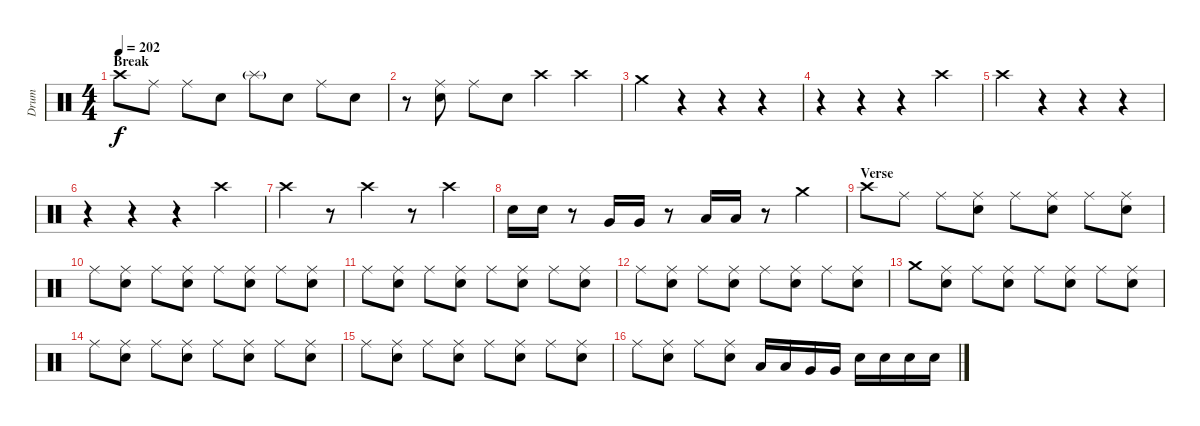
\track ("Drum" "Drum") {instrument percussion}
\staff {score}
\articulation defaults
\ts (4 4)
\section ("" "Break")
\tempo 202
\clef neutral
\ks c "Crash high (hit)".8{dy f} "Ride (middle)".8 "Ride (middle)".8 "Electric Snare (hit)".8 "Splash (hit)"{g}.8 "Electric Snare (hit)".8 "Ride (middle)".8 "Electric Snare (hit)".8
|
r.8 ("Ride (middle)" "Electric Snare (hit)").8 "Ride (middle)".8 "Electric Snare (hit)".8 "Crash high (hit)".4 "Crash high (hit)".4 |
"Crash medium (hit)".4 r.4 r.4 r.4 |
r.4 r.4 r.4 "Crash high (hit)".4 |
"Crash high (hit)".4 r.4 r.4 r.4 |
r.4 r.4 r.4 "Crash high (hit)".4 |
"Crash high (hit)".4 r.8 "Crash high (hit)".4 r.8 "Crash high (hit)".4 |
"Electric Snare (hit)".16 "Electric Snare (hit)".16 r.8 "Very Low Tom (hit)".16 "Very Low Tom (hit)".16 r.8 "Low Tom (hit)".16 "Low Tom (hit)".16 r.8 "Crash medium (hit)".4 |
\section ("" "Verse")
"Crash high (hit)".8 "Ride (middle)".8 "Ride (middle)".8 ("Ride (middle)" "Electric Snare (hit)").8 "Ride (middle)".8 ("Ride (middle)" "Electric Snare (hit)").8 "Ride (middle)".8 ("Ride (middle)" "Electric Snare (hit)").8 |
"Ride (middle)".8 ("Ride (middle)" "Electric Snare (hit)").8 "Ride (middle)".8 ("Ride (middle)" "Electric Snare (hit)").8 "Ride (middle)".8 ("Ride (middle)" "Electric Snare (hit)").8 "Ride (middle)".8 ("Ride (middle)" "Electric Snare (hit)").8 |
"Ride (middle)".8 ("Ride (middle)" "Electric Snare (hit)").8 "Ride (middle)".8 ("Ride (middle)" "Electric Snare (hit)").8 "Ride (middle)".8 ("Ride (middle)" "Electric Snare (hit)").8 "Ride (middle)".8 ("Ride (middle)" "Electric Snare (hit)").8 |
"Ride (middle)".8 ("Ride (middle)" "Electric Snare (hit)").8 "Ride (middle)".8 ("Ride (middle)" "Electric Snare (hit)").8 "Ride (middle)".8 ("Ride (middle)" "Electric Snare (hit)").8 "Ride (middle)".8 ("Ride (middle)" "Electric Snare (hit)").8 |
"Crash medium (hit)".8 ("Ride (middle)" "Electric Snare (hit)").8 "Ride (middle)".8 ("Ride (middle)" "Electric Snare (hit)").8 "Ride (middle)".8 ("Ride (middle)" "Electric Snare (hit)").8 "Ride (middle)".8 ("Ride (middle)" "Electric Snare (hit)").8 |
"Ride (middle)".8 ("Ride (middle)" "Electric Snare (hit)").8 "Ride (middle)".8 ("Ride (middle)" "Electric Snare (hit)").8 "Ride (middle)".8 ("Ride (middle)" "Electric Snare (hit)").8 "Ride (middle)".8 ("Ride (middle)" "Electric Snare (hit)").8 |
"Ride (middle)".8 ("Ride (middle)" "Electric Snare (hit)").8 "Ride (middle)".8 ("Ride (middle)" "Electric Snare (hit)").8 "Ride (middle)".8 ("Ride (middle)" "Electric Snare (hit)").8 "Ride (middle)".8 ("Ride (middle)" "Electric Snare (hit)").8 |
"Ride (middle)".8 ("Ride (middle)" "Electric Snare (hit)").8 "Ride (middle)".8 ("Ride (middle)" "Electric Snare (hit)").8 "Low Tom (hit)".16 "Low Tom (hit)".16 "Very Low Tom (hit)".16 "Very Low Tom (hit)".16 "Electric Snare (hit)".16 "Electric Snare (hit)".16 "Electric Snare (hit)".16 "Electric Snare (hit)".16
